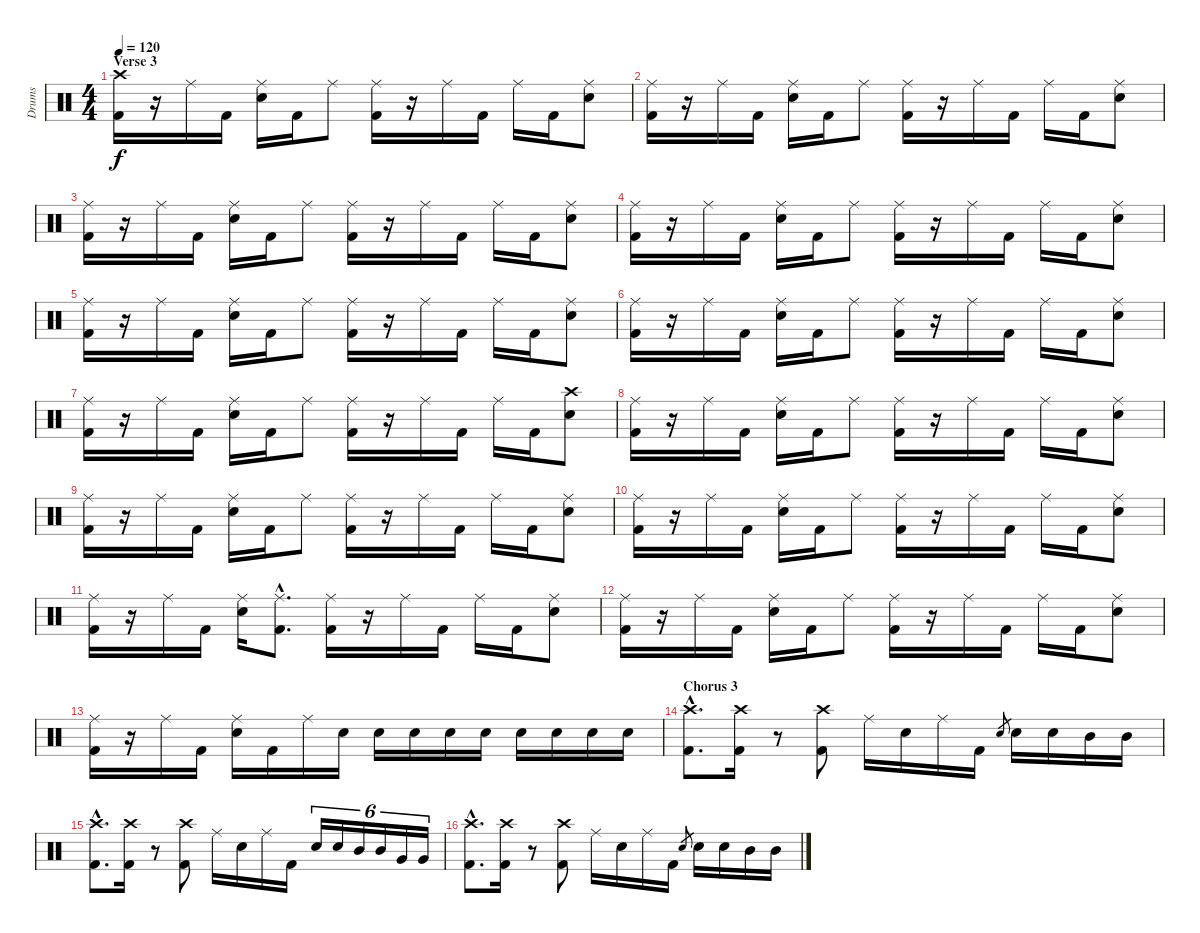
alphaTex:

\track ("Drums" "Drums") {instrument percussion}
\staff {score}
\articulation defaults
\ts (4 4)
\section ("" "Verse 3")
\tempo 120
\clef neutral
\ks c
("Crash high (hit)" "Kick (hit) 2").16{dy f} r.16 "Ride (middle)".16 "Kick (hit) 2".16 ("Ride (middle)" "Electric Snare (hit)").16 "Kick (hit) 2".16 "Ride (middle)".8 ("Ride (middle)" "Kick (hit) 2").16 r.16 "Ride (middle)".16 "Kick (hit) 2".16 "Ride (middle)".16 "Kick (hit) 2".16 ("Ride (middle)" "Electric Snare (hit)").8 |
("Ride (middle)" "Kick (hit) 2").16 r.16 "Ride (middle)".16 "Kick (hit) 2".16 ("Ride (middle)" "Electric Snare (hit)").16 "Kick (hit) 2".16 "Ride (middle)".8 ("Ride (middle)" "Kick (hit) 2").16 r.16 "Ride (middle)".16 "Kick (hit) 2".16 "Ride (middle)".16 "Kick (hit) 2".16 ("Ride (middle)" "Electric Snare (hit)").8 |
("Ride (middle)" "Kick (hit) 2").16 r.16 "Ride (middle)".16 "Kick (hit) 2".16 ("Ride (middle)" "Electric Snare (hit)").16 "Kick (hit) 2".16 "Ride (middle)".8 ("Ride (middle)" "Kick (hit) 2").16 r.16 "Ride (middle)".16 "Kick (hit) 2".16 "Ride (middle)".16 "Kick (hit) 2".16 ("Ride (middle)" "Electric Snare (hit)").8 |
("Ride (middle)" "Kick (hit) 2").16 r.16 "Ride (middle)".16 "Kick (hit) 2".16 ("Ride (middle)" "Electric Snare (hit)").16 "Kick (hit) 2".16 "Ride (middle)".8 ("Ride (middle)" "Kick (hit) 2").16 r.16 "Ride (middle)".16 "Kick (hit) 2".16 "Ride (middle)".16 "Kick (hit) 2".16 ("Ride (middle)" "Electric Snare (hit)").8 |
("Ride (middle)" "Kick (hit) 2").16 r.16 "Ride (middle)".16 "Kick (hit) 2".16 ("Ride (middle)" "Electric Snare (hit)").16 "Kick (hit) 2".16 "Ride (middle)".8 ("Ride (middle)" "Kick (hit) 2").16 r.16 "Ride (middle)".16 "Kick (hit) 2".16 "Ride (middle)".16 "Kick (hit) 2".16 ("Ride (middle)" "Electric Snare (hit)").8 |
("Ride (middle)" "Kick (hit) 2").16 r.16 "Ride (middle)".16 "Kick (hit) 2".16 ("Ride (middle)" "Electric Snare (hit)").16 "Kick (hit) 2".16 "Ride (middle)".8 ("Ride (middle)" "Kick (hit) 2").16 r.16 "Ride (middle)".16 "Kick (hit) 2".16 "Ride (middle)".16 "Kick (hit) 2".16 ("Ride (middle)" "Electric Snare (hit)").8 |
("Ride (middle)" "Kick (hit) 2").16 r.16 "Ride (middle)".16 "Kick (hit) 2".16 ("Ride (middle)" "Electric Snare (hit)").16 "Kick (hit) 2".16 "Ride (middle)".8 ("Ride (middle)" "Kick (hit) 2").16 r.16 "Ride (middle)".16 "Kick (hit) 2".16 "Ride (middle)".16 "Kick (hit) 2".16 ("Crash high (hit)" "Electric Snare (hit)").8 |
("Ride (middle)" "Kick (hit) 2").16 r.16 "Ride (middle)".16 "Kick (hit) 2".16 ("Ride (middle)" "Electric Snare (hit)").16 "Kick (hit) 2".16 "Ride (middle)".8 ("Ride (middle)" "Kick (hit) 2").16 r.16 "Ride (middle)".16 "Kick (hit) 2".16 "Ride (middle)".16 "Kick (hit) 2".16 ("Ride (middle)" "Electric Snare (hit)").8 |
("Ride (middle)" "Kick (hit) 2").16 r.16 "Ride (middle)".16 "Kick (hit) 2".16 ("Ride (middle)" "Electric Snare (hit)").16 "Kick (hit) 2".16 "Ride (middle)".8 ("Ride (middle)" "Kick (hit) 2").16 r.16 "Ride (middle)".16 "Kick (hit) 2".16 "Ride (middle)".16 "Kick (hit) 2".16 ("Ride (middle)" "Electric Snare (hit)").8 |
("Ride (middle)" "Kick (hit) 2").16 r.16 "Ride (middle)".16 "Kick (hit) 2".16 ("Ride (middle)" "Electric Snare (hit)").16 "Kick (hit) 2".16 "Ride (middle)".8 ("Ride (middle)" "Kick (hit) 2").16 r.16 "Ride (middle)".16 "Kick (hit) 2".16 "Ride (middle)".16 "Kick (hit) 2".16 ("Ride (middle)" "Electric Snare (hit)").8 |
("Ride (middle)" "Kick (hit) 2").16 r.16 "Ride (middle)".16 "Kick (hit) 2".16 ("Ride (middle)" "Electric Snare (hit)").16 ("Ride (middle)"{hac} "Kick (hit) 2"{hac}).8{d} ("Ride (middle)" "Kick (hit) 2").16 r.16 "Ride (middle)".16 "Kick (hit) 2".16 "Ride (middle)".16 "Kick (hit) 2".16 ("Ride (middle)" "Electric Snare (hit)").8 |
("Ride (middle)" "Kick (hit) 2").16 r.16 "Ride (middle)".16 "Kick (hit) 2".16 ("Ride (middle)" "Electric Snare (hit)").16 "Kick (hit) 2".16 "Ride (middle)".8 ("Ride (middle)" "Kick (hit) 2").16 r.16 "Ride (middle)".16 "Kick (hit) 2".16 "Ride (middle)".16 "Kick (hit) 2".16 ("Ride (middle)" "Electric Snare (hit)").8 |
("Ride (middle)" "Kick (hit) 2").16 r.16 "Ride (middle)".16 "Kick (hit) 2".16 ("Ride (middle)" "Electric Snare (hit)").16 "Kick (hit) 2".16 "Ride (middle)".16 "Electric Snare (hit)".16 "Electric Snare (hit)".16 "Electric Snare (hit)".16 "Electric Snare (hit)".16 "Electric Snare (hit)".16 "Electric Snare (hit)".16 "Electric Snare (hit)".16 "Electric Snare (hit)".16 "Electric Snare (hit)".16 |
\section ("" "Chorus 3")
("Crash high (hit)"{hac} "Kick (hit) 2"{hac}).8{d} ("Crash high (hit)" "Kick (hit) 2").16 r.8 ("Crash high (hit)" "Kick (hit) 2").8 "Ride (middle)".16 "Electric Snare (hit)".16 "Ride (middle)".16 "Kick (hit) 2".16 "Electric Snare (hit)".8{gr} "Electric Snare (hit)".16 "Electric Snare (hit)".16 "Mid Tom (hit)".16 "Mid Tom (hit)".16 |
("Crash high (hit)"{hac} "Kick (hit) 2"{hac}).8{d} ("Crash high (hit)" "Kick (hit) 2").16 r.8 ("Crash high (hit)" "Kick (hit) 2").8 "Ride (middle)".16 "Electric Snare (hit)".16 "Ride (middle)".16 "Kick (hit) 2".16 "Electric Snare (hit)".16{tu (6 4)} "Electric Snare (hit)".16{tu (6 4)} "Mid Tom (hit)".16{tu (6 4)} "Mid Tom (hit)".16{tu (6 4)} "Very Low Tom (hit)".16{tu (6 4)} "Very Low Tom (hit)".16{tu (6 4)} |
("Crash high (hit)"{hac} "Kick (hit) 2"{hac}).8{d} ("Crash high (hit)" "Kick (hit) 2").16 r.8 ("Crash high (hit)" "Kick (hit) 2").8 "Ride (middle)".16 "Electric Snare (hit)".16 "Ride (middle)".16 "Kick (hit) 2".16 "Electric Snare (hit)".8{gr} "Electric Snare (hit)".16 "Electric Snare (hit)".16 "Mid Tom (hit)".16 "Mid Tom (hit)".16
